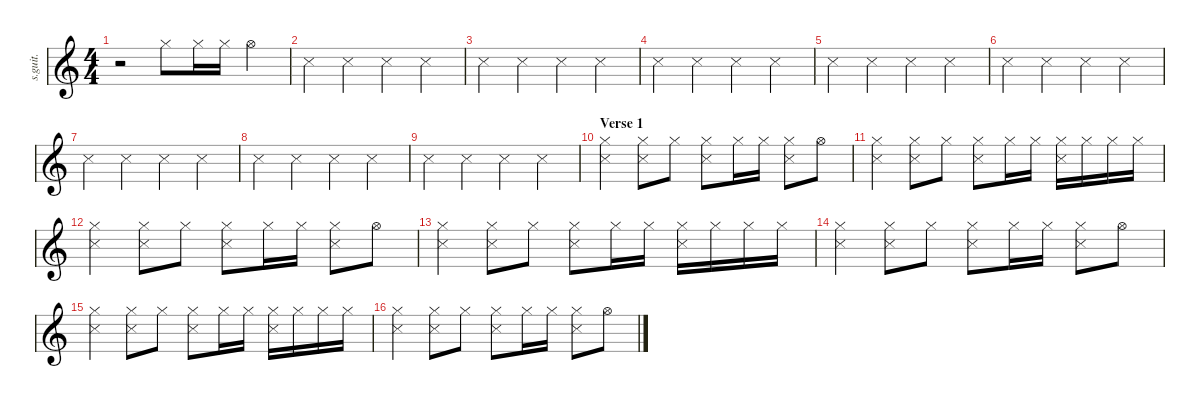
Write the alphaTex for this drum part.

\defaultSystemsLayout 4
\hideDynamics
\bracketExtendMode nobrackets
\track ("Percussion" "s.guit.") {instrument percussion}
\staff {score}
\articulation defaults
\ts (4 4)
\beaming (8 2 2 2 2)
\tempo (102 hide)
\clef g2
\ks c
r.2{dy f} "Hi-Hat (closed)".8 "Hi-Hat (closed)".16 "Hi-Hat (closed)".16 "Hi-Hat (open)".4 |
"Snare (side stick) 3".4 "Snare (side stick) 3".4 "Snare (side stick) 3".4 "Snare (side stick) 3".4 |
"Snare (side stick) 3".4 "Snare (side stick) 3".4 "Snare (side stick) 3".4 "Snare (side stick) 3".4 |
"Snare (side stick) 3".4 "Snare (side stick) 3".4 "Snare (side stick) 3".4 "Snare (side stick) 3".4 |
"Snare (side stick) 3".4 "Snare (side stick) 3".4 "Snare (side stick) 3".4 "Snare (side stick) 3".4 |
"Snare (side stick) 3".4 "Snare (side stick) 3".4 "Snare (side stick) 3".4 "Snare (side stick) 3".4 |
"Snare (side stick) 3".4 "Snare (side stick) 3".4 "Snare (side stick) 3".4 "Snare (side stick) 3".4 |
"Snare (side stick) 3".4 "Snare (side stick) 3".4 "Snare (side stick) 3".4 "Snare (side stick) 3".4 |
"Snare (side stick) 3".4 "Snare (side stick) 3".4 "Snare (side stick) 3".4 "Snare (side stick) 3".4 |
\section ("" "Verse 1")
("Snare (side stick) 3" "Hi-Hat (closed)").4 ("Snare (side stick) 3" "Hi-Hat (closed)").8 "Hi-Hat (closed)".8 ("Snare (side stick) 3" "Hi-Hat (closed)").8 "Hi-Hat (closed)".16 "Hi-Hat (closed)".16 ("Snare (side stick) 3" "Hi-Hat (closed)").8 "Hi-Hat (open)".8 |
("Snare (side stick) 3" "Hi-Hat (closed)").4 ("Snare (side stick) 3" "Hi-Hat (closed)").8 "Hi-Hat (closed)".8 ("Snare (side stick) 3" "Hi-Hat (closed)").8 "Hi-Hat (closed)".16 "Hi-Hat (closed)".16 ("Snare (side stick) 3" "Hi-Hat (closed)").16 "Hi-Hat (closed)".16 "Hi-Hat (closed)".16 "Hi-Hat (closed)".16 |
("Snare (side stick) 3" "Hi-Hat (closed)").4 ("Snare (side stick) 3" "Hi-Hat (closed)").8 "Hi-Hat (closed)".8 ("Snare (side stick) 3" "Hi-Hat (closed)").8 "Hi-Hat (closed)".16 "Hi-Hat (closed)".16 ("Snare (side stick) 3" "Hi-Hat (closed)").8 "Hi-Hat (open)".8 |
("Snare (side stick) 3" "Hi-Hat (closed)").4 ("Snare (side stick) 3" "Hi-Hat (closed)").8 "Hi-Hat (closed)".8 ("Snare (side stick) 3" "Hi-Hat (closed)").8 "Hi-Hat (closed)".16 "Hi-Hat (closed)".16 ("Snare (side stick) 3" "Hi-Hat (closed)").16 "Hi-Hat (closed)".16 "Hi-Hat (closed)".16 "Hi-Hat (closed)".16 |
("Snare (side stick) 3" "Hi-Hat (closed)").4 ("Snare (side stick) 3" "Hi-Hat (closed)").8 "Hi-Hat (closed)".8 ("Snare (side stick) 3" "Hi-Hat (closed)").8 "Hi-Hat (closed)".16 "Hi-Hat (closed)".16 ("Snare (side stick) 3" "Hi-Hat (closed)").8 "Hi-Hat (open)".8 |
("Snare (side stick) 3" "Hi-Hat (closed)").4 ("Snare (side stick) 3" "Hi-Hat (closed)").8 "Hi-Hat (closed)".8 ("Snare (side stick) 3" "Hi-Hat (closed)").8 "Hi-Hat (closed)".16 "Hi-Hat (closed)".16 ("Snare (side stick) 3" "Hi-Hat (closed)").16 "Hi-Hat (closed)".16 "Hi-Hat (closed)".16 "Hi-Hat (closed)".16 |
("Snare (side stick) 3" "Hi-Hat (closed)").4 ("Snare (side stick) 3" "Hi-Hat (closed)").8 "Hi-Hat (closed)".8 ("Snare (side stick) 3" "Hi-Hat (closed)").8 "Hi-Hat (closed)".16 "Hi-Hat (closed)".16 ("Snare (side stick) 3" "Hi-Hat (closed)").8 "Hi-Hat (open)".8
